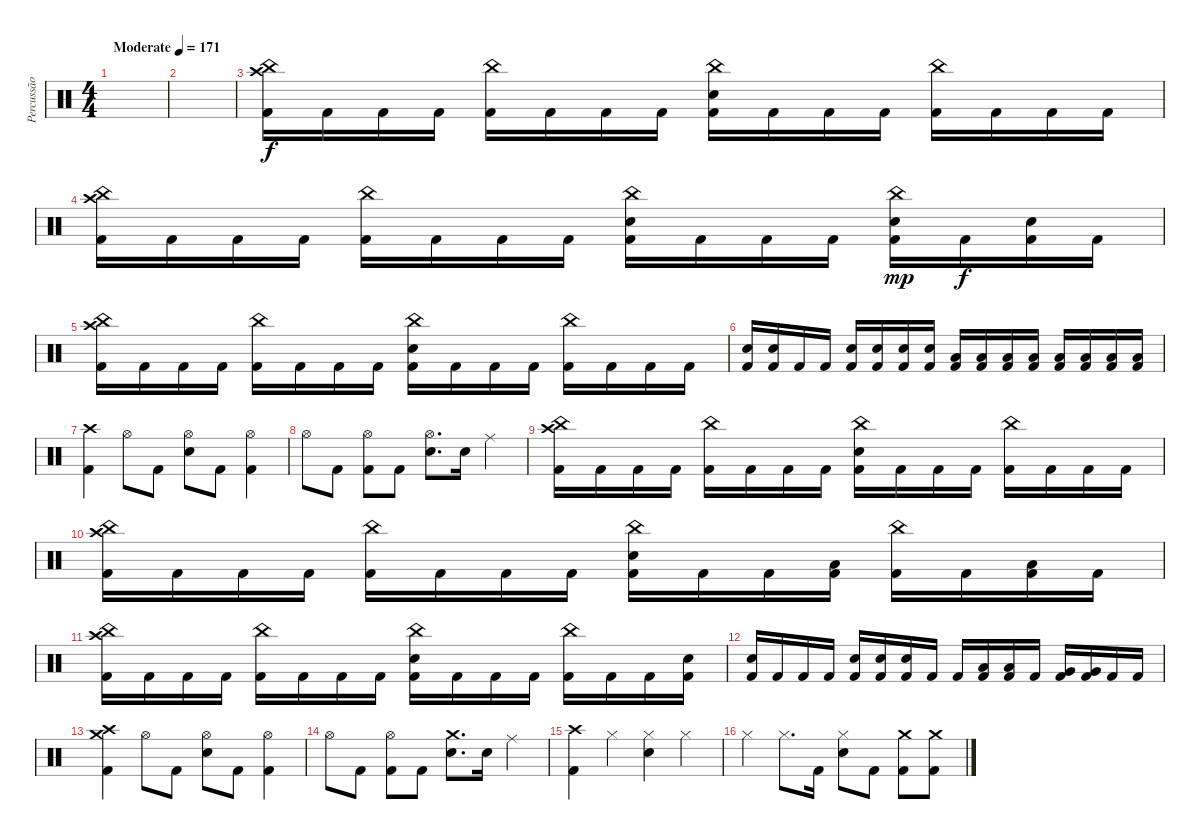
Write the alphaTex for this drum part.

\track ("Percussão" "Percussão") {instrument percussion}
\staff {score}
\articulation defaults
\ts (4 4)
\tempo (171 "Moderate")
\clef neutral
\ks c
|
|
("China (hit)" "Crash high (hit)" "Kick (hit) 2").16 "Kick (hit) 2".16 "Kick (hit) 2".16 "Kick (hit) 2".16 ("China (hit)" "Kick (hit) 2").16 "Kick (hit) 2".16 "Kick (hit) 2".16 "Kick (hit) 2".16 ("China (hit)" "Electric Snare (hit)" "Kick (hit) 2").16 "Kick (hit) 2".16 "Kick (hit) 2".16 "Kick (hit) 2".16 ("China (hit)" "Kick (hit) 2").16 "Kick (hit) 2".16 "Kick (hit) 2".16 "Kick (hit) 2".16 |
("China (hit)" "Crash high (hit)" "Kick (hit) 2").16 "Kick (hit) 2".16 "Kick (hit) 2".16 "Kick (hit) 2".16 ("China (hit)" "Kick (hit) 2").16 "Kick (hit) 2".16 "Kick (hit) 2".16 "Kick (hit) 2".16 ("China (hit)" "Electric Snare (hit)" "Kick (hit) 2").16 "Kick (hit) 2".16 "Kick (hit) 2".16 "Kick (hit) 2".16 ("China (hit)" "Electric Snare (hit)" "Kick (hit) 2").16{dy mp} "Kick (hit) 2".16{dy f} ("Electric Snare (hit)" "Kick (hit) 2").16 "Kick (hit) 2".16 |
("China (hit)" "Crash high (hit)" "Kick (hit) 2").16 "Kick (hit) 2".16 "Kick (hit) 2".16 "Kick (hit) 2".16 ("China (hit)" "Kick (hit) 2").16 "Kick (hit) 2".16 "Kick (hit) 2".16 "Kick (hit) 2".16 ("China (hit)" "Electric Snare (hit)" "Kick (hit) 2").16 "Kick (hit) 2".16 "Kick (hit) 2".16 "Kick (hit) 2".16 ("China (hit)" "Kick (hit) 2").16 "Kick (hit) 2".16 "Kick (hit) 2".16 "Kick (hit) 2".16 |
("Electric Snare (hit)" "Kick (hit) 2").16 ("Electric Snare (hit)" "Kick (hit) 2").16 "Kick (hit) 2".16 "Kick (hit) 2".16 ("Electric Snare (hit)" "Kick (hit) 2").16 ("Electric Snare (hit)" "Kick (hit) 2").16 ("Electric Snare (hit)" "Kick (hit) 2").16 ("Electric Snare (hit)" "Kick (hit) 2").16 ("Low Tom (hit)" "Kick (hit) 2").16 ("Low Tom (hit)" "Kick (hit) 2").16 ("Low Tom (hit)" "Kick (hit) 2").16 ("Low Tom (hit)" "Kick (hit) 2").16 ("Low Floor Tom (hit)" "Kick (hit) 2").16 ("Low Floor Tom (hit)" "Kick (hit) 2").16 ("Low Floor Tom (hit)" "Kick (hit) 2").16 ("Low Floor Tom (hit)" "Kick (hit) 2").16 |
("Crash high (hit)" "Kick (hit) 2").4 "Hi-Hat (open)".8 "Kick (hit) 2".8 ("Hi-Hat (open)" "Electric Snare (hit)").8 "Kick (hit) 2".8 ("Hi-Hat (open)" "Kick (hit) 2").4 |
"Hi-Hat (open)".8 "Kick (hit) 2".8 ("Hi-Hat (open)" "Kick (hit) 2").8 "Kick (hit) 2".8 ("Hi-Hat (open)" "Electric Snare (hit)").8{d} "Electric Snare (hit)".16 "Ride (middle)".4 |
("China (hit)" "Crash high (hit)" "Kick (hit) 2").16 "Kick (hit) 2".16 "Kick (hit) 2".16 "Kick (hit) 2".16 ("China (hit)" "Kick (hit) 2").16 "Kick (hit) 2".16 "Kick (hit) 2".16 "Kick (hit) 2".16 ("China (hit)" "Electric Snare (hit)" "Kick (hit) 2").16 "Kick (hit) 2".16 "Kick (hit) 2".16 "Kick (hit) 2".16 ("China (hit)" "Kick (hit) 2").16 "Kick (hit) 2".16 "Kick (hit) 2".16 "Kick (hit) 2".16 |
("China (hit)" "Crash high (hit)" "Kick (hit) 2").16 "Kick (hit) 2".16 "Kick (hit) 2".16 "Kick (hit) 2".16 ("China (hit)" "Kick (hit) 2").16 "Kick (hit) 2".16 "Kick (hit) 2".16 "Kick (hit) 2".16 ("China (hit)" "Electric Snare (hit)" "Kick (hit) 2").16 "Kick (hit) 2".16 "Kick (hit) 2".16 ("Low Tom (hit)" "Kick (hit) 2").16 ("China (hit)" "Kick (hit) 2").16 "Kick (hit) 2".16 ("Low Floor Tom (hit)" "Kick (hit) 2").16 "Kick (hit) 2".16 |
("China (hit)" "Crash high (hit)" "Kick (hit) 2").16 "Kick (hit) 2".16 "Kick (hit) 2".16 "Kick (hit) 2".16 ("China (hit)" "Kick (hit) 2").16 "Kick (hit) 2".16 "Kick (hit) 2".16 "Kick (hit) 2".16 ("China (hit)" "Electric Snare (hit)" "Kick (hit) 2").16 "Kick (hit) 2".16 "Kick (hit) 2".16 "Kick (hit) 2".16 ("China (hit)" "Kick (hit) 2").16 "Kick (hit) 2".16 "Kick (hit) 2".16 ("Electric Snare (hit)" "Kick (hit) 2").16 |
("Electric Snare (hit)" "Kick (hit) 2").16 "Kick (hit) 2".16 "Kick (hit) 2".16 "Kick (hit) 2".16 ("Electric Snare (hit)" "Kick (hit) 2").16 ("Electric Snare (hit)" "Kick (hit) 2").16 ("Electric Snare (hit)" "Kick (hit) 2").16 "Kick (hit) 2".16 "Kick (hit) 2".16 ("Low Tom (hit)" "Kick (hit) 2").16 ("Low Tom (hit)" "Kick (hit) 2").16 "Kick (hit) 2".16 ("Very Low Tom (hit)" "Kick (hit) 2").16 ("Very Low Tom (hit)" "Kick (hit) 2").16 "Kick (hit) 2".16 "Kick (hit) 2".16 |
("Crash medium (hit)" "Crash high (hit)" "Kick (hit) 2").4 "Hi-Hat (open)".8 "Kick (hit) 2".8 ("Hi-Hat (open)" "Electric Snare (hit)").8 "Kick (hit) 2".8 ("Hi-Hat (open)" "Kick (hit) 2").4 |
"Hi-Hat (open)".8 "Kick (hit) 2".8 ("Hi-Hat (open)" "Kick (hit) 2").8 "Kick (hit) 2".8 ("Crash medium (hit)" "Electric Snare (hit)").8{d} "Electric Snare (hit)".16 "Ride (middle)".4 |
("Crash high (hit)" "Kick (hit) 2").4 "Hi-Hat (closed)".4 ("Hi-Hat (closed)" "Electric Snare (hit)").4 "Hi-Hat (closed)".4 |
"Hi-Hat (closed)".4 "Hi-Hat (closed)".8{d} "Kick (hit) 2".16 ("Hi-Hat (closed)" "Electric Snare (hit)").8 "Kick (hit) 2".8 ("Crash medium (hit)" "Kick (hit) 2").8 ("Crash medium (hit)" "Kick (hit) 2").8
